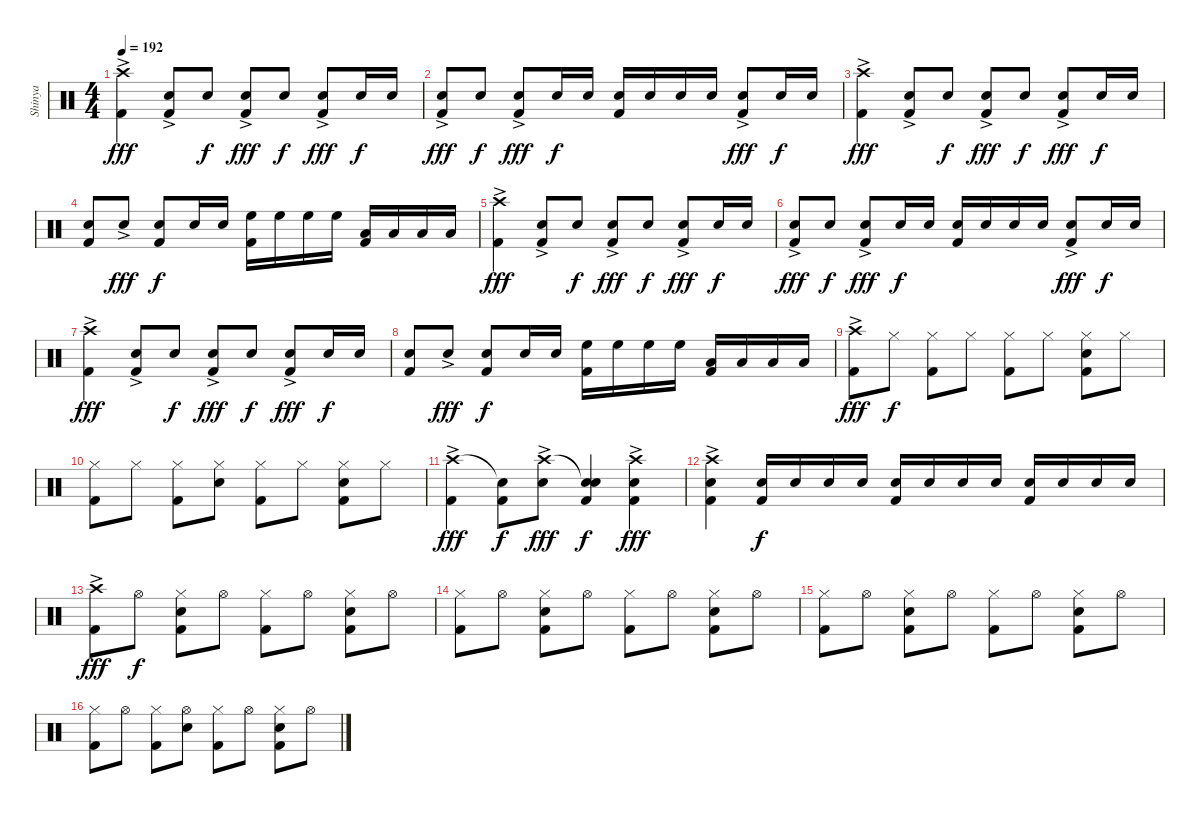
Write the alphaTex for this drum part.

\track ("Shinya" "Shinya") {instrument percussion}
\staff {score}
\articulation defaults
\ts (4 4)
\tempo 192
\clef neutral
\ks c
("Crash high (hit)"{ac} "Kick (hit) 2").4{dy fff} ("Snare (hit) 2"{ac} "Kick (hit) 2").8 "Snare (hit) 2".8{dy f} ("Snare (hit) 2"{ac} "Kick (hit) 2").8{dy fff} "Snare (hit) 2".8{dy f} ("Snare (hit) 2"{ac} "Kick (hit) 2").8{dy fff} "Snare (hit) 2".16{dy f} "Snare (hit) 2".16 |
("Snare (hit) 2"{ac} "Kick (hit) 2").8{dy fff} "Snare (hit) 2".8{dy f} ("Snare (hit) 2"{ac} "Kick (hit) 2").8{dy fff} "Snare (hit) 2".16{dy f} "Snare (hit) 2".16 ("Snare (hit) 2" "Kick (hit) 2").16 "Snare (hit) 2".16 "Snare (hit) 2".16 "Snare (hit) 2".16 ("Snare (hit) 2"{ac} "Kick (hit) 2").8{dy fff} "Snare (hit) 2".16{dy f} "Snare (hit) 2".16 |
("Crash high (hit)"{ac} "Kick (hit) 2").4{dy fff} ("Snare (hit) 2"{ac} "Kick (hit) 2").8 "Snare (hit) 2".8{dy f} ("Snare (hit) 2"{ac} "Kick (hit) 2").8{dy fff} "Snare (hit) 2".8{dy f} ("Snare (hit) 2"{ac} "Kick (hit) 2").8{dy fff} "Snare (hit) 2".16{dy f} "Snare (hit) 2".16 |
("Snare (hit) 2" "Kick (hit) 2").8 "Snare (hit) 2"{ac}.8{dy fff} ("Snare (hit) 2" "Kick (hit) 2").8{dy f} "Snare (hit) 2".16 "Snare (hit) 2".16 ("High Floor Tom (hit)" "Kick (hit) 2").16 "High Floor Tom (hit)".16 "High Floor Tom (hit)".16 "High Floor Tom (hit)".16 ("Low Tom (hit)" "Kick (hit) 2").16 "Low Tom (hit)".16 "Low Tom (hit)".16 "Low Tom (hit)".16 |
("Crash high (hit)"{ac} "Kick (hit) 2").4{dy fff} ("Snare (hit) 2"{ac} "Kick (hit) 2").8 "Snare (hit) 2".8{dy f} ("Snare (hit) 2"{ac} "Kick (hit) 2").8{dy fff} "Snare (hit) 2".8{dy f} ("Snare (hit) 2"{ac} "Kick (hit) 2").8{dy fff} "Snare (hit) 2".16{dy f} "Snare (hit) 2".16 |
("Snare (hit) 2"{ac} "Kick (hit) 2").8{dy fff} "Snare (hit) 2".8{dy f} ("Snare (hit) 2"{ac} "Kick (hit) 2").8{dy fff} "Snare (hit) 2".16{dy f} "Snare (hit) 2".16 ("Snare (hit) 2" "Kick (hit) 2").16 "Snare (hit) 2".16 "Snare (hit) 2".16 "Snare (hit) 2".16 ("Snare (hit) 2"{ac} "Kick (hit) 2").8{dy fff} "Snare (hit) 2".16{dy f} "Snare (hit) 2".16 |
("Crash high (hit)"{ac} "Kick (hit) 2").4{dy fff} ("Snare (hit) 2"{ac} "Kick (hit) 2").8 "Snare (hit) 2".8{dy f} ("Snare (hit) 2"{ac} "Kick (hit) 2").8{dy fff} "Snare (hit) 2".8{dy f} ("Snare (hit) 2"{ac} "Kick (hit) 2").8{dy fff} "Snare (hit) 2".16{dy f} "Snare (hit) 2".16 |
("Snare (hit) 2" "Kick (hit) 2").8 "Snare (hit) 2"{ac}.8{dy fff} ("Snare (hit) 2" "Kick (hit) 2").8{dy f} "Snare (hit) 2".16 "Snare (hit) 2".16 ("High Floor Tom (hit)" "Kick (hit) 2").16 "High Floor Tom (hit)".16 "High Floor Tom (hit)".16 "High Floor Tom (hit)".16 ("Low Tom (hit)" "Kick (hit) 2").16 "Low Tom (hit)".16 "Low Tom (hit)".16 "Low Tom (hit)".16 |
("Crash high (hit)"{ac} "Kick (hit) 2").8{dy fff} "Hi-Hat (closed)".8{dy f} ("Hi-Hat (closed)" "Kick (hit) 2").8 "Hi-Hat (closed)".8 ("Hi-Hat (closed)" "Kick (hit) 2").8 "Hi-Hat (closed)".8 ("Hi-Hat (closed)" "Snare (hit) 2" "Kick (hit) 2").8 "Hi-Hat (closed)".8 |
("Hi-Hat (closed)" "Kick (hit) 2").8 "Hi-Hat (closed)".8 ("Hi-Hat (closed)" "Kick (hit) 2").8 ("Hi-Hat (closed)" "Snare (hit) 2").8 ("Hi-Hat (closed)" "Kick (hit) 2").8 "Hi-Hat (closed)".8 ("Hi-Hat (closed)" "Snare (hit) 2" "Kick (hit) 2").8 "Hi-Hat (closed)".8 |
("Crash high (hit)"{ac} "Kick (hit) 2").4{dy fff} ("Snare (hit)"{t} "Kick (hit) 2").8{dy f} ("Crash high (hit)"{ac} "Snare (hit) 2").8{dy fff} ("Snare (hit)"{t} "Snare (hit) 2" "Kick (hit) 2").4{dy f} ("Crash high (hit)"{ac} "Snare (hit) 2" "Kick (hit) 2").4{dy fff} |
("Crash high (hit)"{ac} "Snare (hit) 2" "Kick (hit) 2").4 ("Snare (hit) 2" "Kick (hit) 2").16{dy f} "Snare (hit) 2".16 "Snare (hit) 2".16 "Snare (hit) 2".16 ("Snare (hit) 2" "Kick (hit) 2").16 "Snare (hit) 2".16 "Snare (hit) 2".16 "Snare (hit) 2".16 ("Snare (hit) 2" "Kick (hit) 2").16 "Snare (hit) 2".16 "Snare (hit) 2".16 "Snare (hit) 2".16 |
("Crash high (hit)"{ac} "Kick (hit) 2").8{dy fff} "Hi-Hat (open)".8{dy f} ("Hi-Hat (closed)" "Snare (hit) 2" "Kick (hit) 2").8 "Hi-Hat (open)".8 ("Hi-Hat (closed)" "Kick (hit) 2").8 "Hi-Hat (open)".8 ("Hi-Hat (closed)" "Snare (hit) 2" "Kick (hit) 2").8 "Hi-Hat (open)".8 |
("Hi-Hat (closed)" "Kick (hit) 2").8 "Hi-Hat (open)".8 ("Hi-Hat (closed)" "Snare (hit) 2" "Kick (hit) 2").8 "Hi-Hat (open)".8 ("Hi-Hat (closed)" "Kick (hit) 2").8 "Hi-Hat (open)".8 ("Hi-Hat (closed)" "Snare (hit) 2" "Kick (hit) 2").8 "Hi-Hat (open)".8 |
("Hi-Hat (closed)" "Kick (hit) 2").8 "Hi-Hat (open)".8 ("Hi-Hat (closed)" "Snare (hit) 2" "Kick (hit) 2").8 "Hi-Hat (open)".8 ("Hi-Hat (closed)" "Kick (hit) 2").8 "Hi-Hat (open)".8 ("Hi-Hat (closed)" "Snare (hit) 2" "Kick (hit) 2").8 "Hi-Hat (open)".8 |
("Hi-Hat (closed)" "Kick (hit) 2").8 "Hi-Hat (open)".8 ("Hi-Hat (closed)" "Kick (hit) 2").8 ("Hi-Hat (open)" "Snare (hit) 2").8 ("Hi-Hat (closed)" "Kick (hit) 2").8 "Hi-Hat (open)".8 ("Hi-Hat (closed)" "Snare (hit) 2" "Kick (hit) 2").8 "Hi-Hat (open)".8
